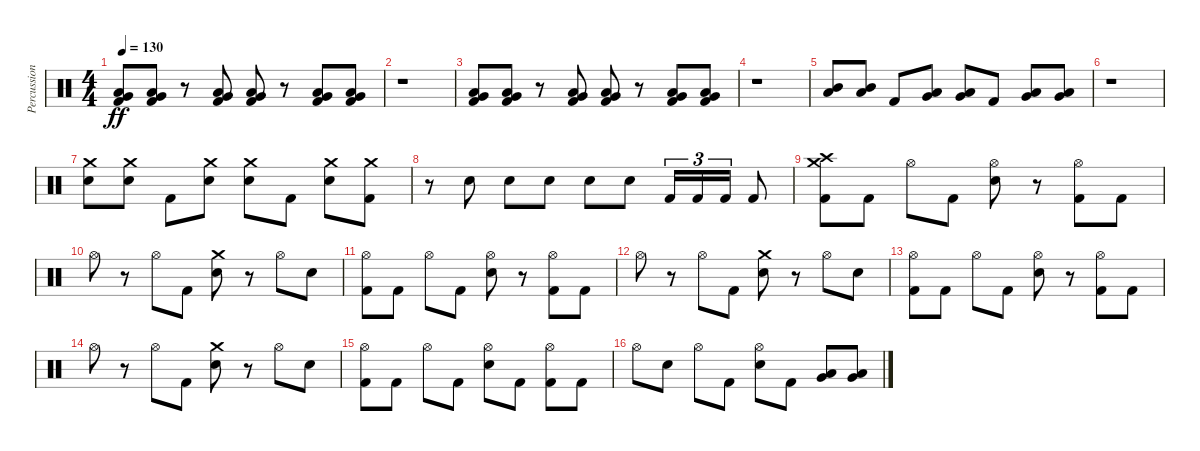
\track ("Percussion" "Percussion") {instrument percussion}
\staff {score}
\articulation defaults
\ts (4 4)
\tempo 130
\clef neutral
\ks c
("Kick (hit) 2" "Low Tom (hit)" "Very Low Tom (hit)").8{dy ff} ("Kick (hit) 2" "Low Tom (hit)" "Very Low Tom (hit)").8 r.8 ("Kick (hit) 2" "Low Tom (hit)" "Very Low Tom (hit)").8 ("Kick (hit) 2" "Low Tom (hit)" "Very Low Tom (hit)").8 r.8 ("Kick (hit) 2" "Low Tom (hit)" "Very Low Tom (hit)").8 ("Kick (hit) 2" "Low Tom (hit)" "Very Low Tom (hit)").8 |
r.1 |
("Kick (hit) 2" "Low Tom (hit)" "Very Low Tom (hit)").8 ("Kick (hit) 2" "Low Tom (hit)" "Very Low Tom (hit)").8 r.8 ("Kick (hit) 2" "Low Tom (hit)" "Very Low Tom (hit)").8 ("Kick (hit) 2" "Low Tom (hit)" "Very Low Tom (hit)").8 r.8 ("Kick (hit) 2" "Low Tom (hit)" "Very Low Tom (hit)").8 ("Kick (hit) 2" "Low Tom (hit)" "Very Low Tom (hit)").8 |
r.1 |
("Mid Tom (hit)" "Low Tom (hit)").8 ("Mid Tom (hit)" "Low Tom (hit)").8 "Kick (hit) 2".8 ("Low Tom (hit)" "Very Low Tom (hit)").8 ("Low Tom (hit)" "Very Low Tom (hit)").8 "Kick (hit) 2".8 ("Very Low Tom (hit)" "Low Floor Tom (hit)").8 ("Very Low Tom (hit)" "Low Floor Tom (hit)").8 |
r.1 |
("Electric Snare (hit)" "Crash medium (hit)").8 ("Electric Snare (hit)" "Crash medium (hit)").8 "Kick (hit) 2".8 ("Electric Snare (hit)" "Crash medium (hit)").8 ("Electric Snare (hit)" "Crash medium (hit)").8 "Kick (hit) 2".8 ("Electric Snare (hit)" "Crash medium (hit)").8 ("Kick (hit) 2" "Crash medium (hit)").8 |
r.8 "Electric Snare (hit)".8 "Electric Snare (hit)".8 "Electric Snare (hit)".8 "Electric Snare (hit)".8 "Electric Snare (hit)".8 "Kick (hit) 2".16{tu (3 2)} "Kick (hit) 2".16{tu (3 2)} "Kick (hit) 2".16{tu (3 2)} "Kick (hit) 2".8 |
("Kick (hit) 2" "Crash high (hit)" "Crash medium (hit)").8 "Kick (hit) 2".8 "Hi-Hat (open)".8 "Kick (hit) 2".8 ("Electric Snare (hit)" "Hi-Hat (open)").8 r.8 ("Kick (hit) 2" "Hi-Hat (open)").8 "Kick (hit) 2".8 |
"Hi-Hat (open)".8 r.8 "Hi-Hat (open)".8 "Kick (hit) 2".8 ("Electric Snare (hit)" "Crash medium (hit)").8 r.8 "Hi-Hat (open)".8 "Electric Snare (hit)".8 |
("Kick (hit) 2" "Hi-Hat (open)").8 "Kick (hit) 2".8 "Hi-Hat (open)".8 "Kick (hit) 2".8 ("Electric Snare (hit)" "Hi-Hat (open)").8 r.8 ("Kick (hit) 2" "Hi-Hat (open)").8 "Kick (hit) 2".8 |
"Hi-Hat (open)".8 r.8 "Hi-Hat (open)".8 "Kick (hit) 2".8 ("Electric Snare (hit)" "Crash medium (hit)").8 r.8 "Hi-Hat (open)".8 "Electric Snare (hit)".8 |
("Kick (hit) 2" "Hi-Hat (open)").8 "Kick (hit) 2".8 "Hi-Hat (open)".8 "Kick (hit) 2".8 ("Electric Snare (hit)" "Hi-Hat (open)").8 r.8 ("Kick (hit) 2" "Hi-Hat (open)").8 "Kick (hit) 2".8 |
"Hi-Hat (open)".8 r.8 "Hi-Hat (open)".8 "Kick (hit) 2".8 ("Electric Snare (hit)" "Crash medium (hit)").8 r.8 "Hi-Hat (open)".8 "Electric Snare (hit)".8 |
("Kick (hit) 2" "Hi-Hat (open)").8 "Kick (hit) 2".8 "Hi-Hat (open)".8 "Kick (hit) 2".8 ("Electric Snare (hit)" "Hi-Hat (open)").8 "Kick (hit) 2".8 ("Kick (hit) 2" "Hi-Hat (open)").8 "Kick (hit) 2".8 |
"Hi-Hat (open)".8 "Electric Snare (hit)".8 "Hi-Hat (open)".8 "Kick (hit) 2".8 ("Electric Snare (hit)" "Hi-Hat (open)").8 "Kick (hit) 2".8 ("Low Tom (hit)" "Very Low Tom (hit)").8 ("Low Tom (hit)" "Very Low Tom (hit)").8
